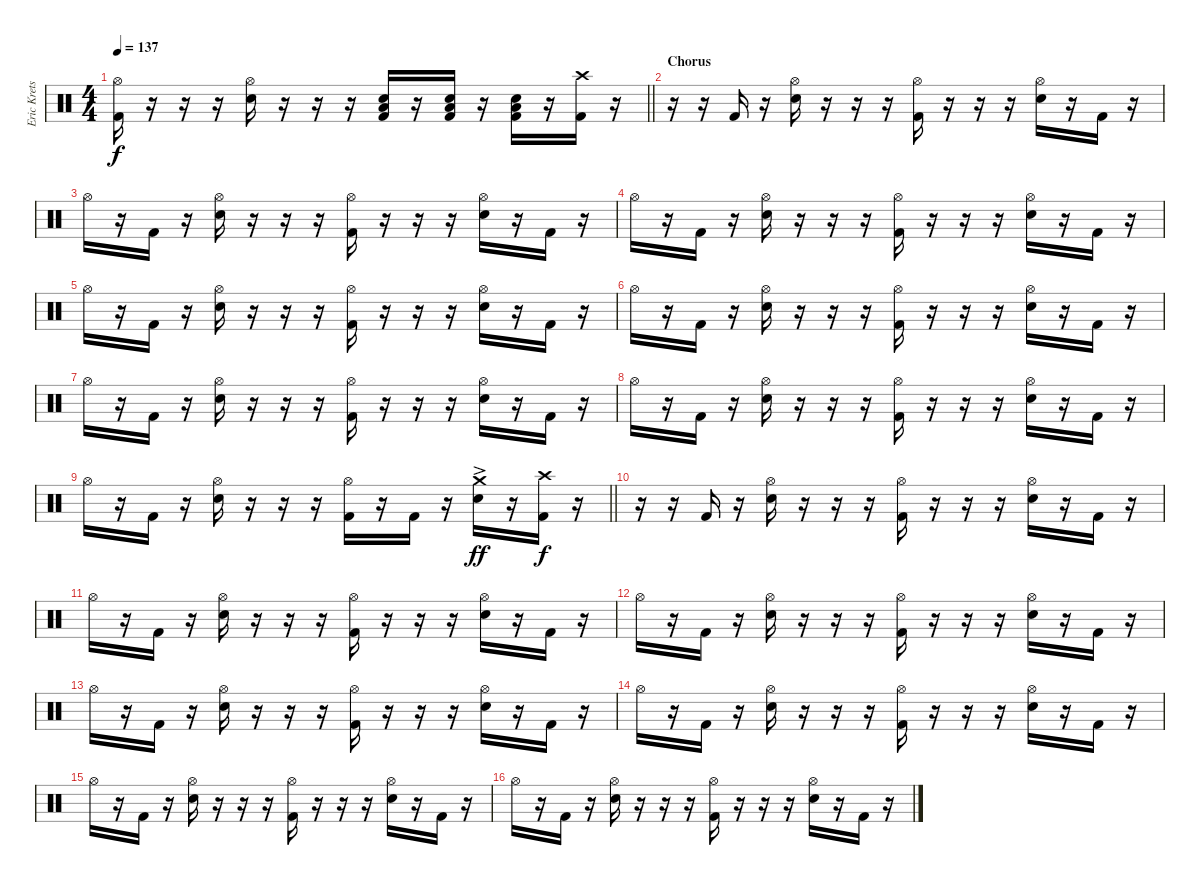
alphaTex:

\track ("Eric Krets" "Eric Krets") {instrument percussion}
\staff {score}
\articulation defaults
\ts (4 4)
\tempo 137
\clef neutral
\barLineRight lightlight
\ks c
("Hi-Hat (open)" "Kick (hit) 2").16{dy f} r.16 r.16 r.16 ("Hi-Hat (open)" "Electric Snare (hit)").16 r.16 r.16 r.16 ("Low Tom (hit)" "Electric Snare (hit)" "Kick (hit) 2").16 r.16 ("Low Tom (hit)" "Electric Snare (hit)" "Kick (hit) 2").16 r.16 ("Low Tom (hit)" "Electric Snare (hit)" "Kick (hit) 2").16 r.16 ("Crash high (hit)" "Kick (hit) 2").16 r.16 |
\section ("" "Chorus")
r.16 r.16 "Kick (hit) 2".16 r.16 ("Hi-Hat (open)" "Electric Snare (hit)").16 r.16 r.16 r.16 ("Hi-Hat (open)" "Kick (hit) 2").16 r.16 r.16 r.16 ("Hi-Hat (open)" "Electric Snare (hit)").16 r.16 "Kick (hit) 2".16 r.16 |
"Hi-Hat (open)".16 r.16 "Kick (hit) 2".16 r.16 ("Hi-Hat (open)" "Electric Snare (hit)").16 r.16 r.16 r.16 ("Hi-Hat (open)" "Kick (hit) 2").16 r.16 r.16 r.16 ("Hi-Hat (open)" "Electric Snare (hit)").16 r.16 "Kick (hit) 2".16 r.16 |
"Hi-Hat (open)".16 r.16 "Kick (hit) 2".16 r.16 ("Hi-Hat (open)" "Electric Snare (hit)").16 r.16 r.16 r.16 ("Hi-Hat (open)" "Kick (hit) 2").16 r.16 r.16 r.16 ("Hi-Hat (open)" "Electric Snare (hit)").16 r.16 "Kick (hit) 2".16 r.16 |
"Hi-Hat (open)".16 r.16 "Kick (hit) 2".16 r.16 ("Hi-Hat (open)" "Electric Snare (hit)").16 r.16 r.16 r.16 ("Hi-Hat (open)" "Kick (hit) 2").16 r.16 r.16 r.16 ("Hi-Hat (open)" "Electric Snare (hit)").16 r.16 "Kick (hit) 2".16 r.16 |
"Hi-Hat (open)".16 r.16 "Kick (hit) 2".16 r.16 ("Hi-Hat (open)" "Electric Snare (hit)").16 r.16 r.16 r.16 ("Hi-Hat (open)" "Kick (hit) 2").16 r.16 r.16 r.16 ("Hi-Hat (open)" "Electric Snare (hit)").16 r.16 "Kick (hit) 2".16 r.16 |
"Hi-Hat (open)".16 r.16 "Kick (hit) 2".16 r.16 ("Hi-Hat (open)" "Electric Snare (hit)").16 r.16 r.16 r.16 ("Hi-Hat (open)" "Kick (hit) 2").16 r.16 r.16 r.16 ("Hi-Hat (open)" "Electric Snare (hit)").16 r.16 "Kick (hit) 2".16 r.16 |
"Hi-Hat (open)".16 r.16 "Kick (hit) 2".16 r.16 ("Hi-Hat (open)" "Electric Snare (hit)").16 r.16 r.16 r.16 ("Hi-Hat (open)" "Kick (hit) 2").16 r.16 r.16 r.16 ("Hi-Hat (open)" "Electric Snare (hit)").16 r.16 "Kick (hit) 2".16 r.16 |
\barLineRight lightlight "Hi-Hat (open)".16
r.16 "Kick (hit) 2".16 r.16 ("Hi-Hat (open)" "Electric Snare (hit)").16 r.16 r.16 r.16 ("Hi-Hat (open)" "Kick (hit) 2").16 r.16 "Kick (hit) 2".16 r.16 ("Crash medium (hit)" "Electric Snare (hit)"{ac}).16{dy ff} r.16 ("Crash high (hit)" "Kick (hit) 2").16{dy f} r.16 |
r.16 r.16 "Kick (hit) 2".16 r.16 ("Hi-Hat (open)" "Electric Snare (hit)").16 r.16 r.16 r.16 ("Hi-Hat (open)" "Kick (hit) 2").16 r.16 r.16 r.16 ("Hi-Hat (open)" "Electric Snare (hit)").16 r.16 "Kick (hit) 2".16 r.16 |
"Hi-Hat (open)".16 r.16 "Kick (hit) 2".16 r.16 ("Hi-Hat (open)" "Electric Snare (hit)").16 r.16 r.16 r.16 ("Hi-Hat (open)" "Kick (hit) 2").16 r.16 r.16 r.16 ("Hi-Hat (open)" "Electric Snare (hit)").16 r.16 "Kick (hit) 2".16 r.16 |
"Hi-Hat (open)".16 r.16 "Kick (hit) 2".16 r.16 ("Hi-Hat (open)" "Electric Snare (hit)").16 r.16 r.16 r.16 ("Hi-Hat (open)" "Kick (hit) 2").16 r.16 r.16 r.16 ("Hi-Hat (open)" "Electric Snare (hit)").16 r.16 "Kick (hit) 2".16 r.16 |
"Hi-Hat (open)".16 r.16 "Kick (hit) 2".16 r.16 ("Hi-Hat (open)" "Electric Snare (hit)").16 r.16 r.16 r.16 ("Hi-Hat (open)" "Kick (hit) 2").16 r.16 r.16 r.16 ("Hi-Hat (open)" "Electric Snare (hit)").16 r.16 "Kick (hit) 2".16 r.16 |
"Hi-Hat (open)".16 r.16 "Kick (hit) 2".16 r.16 ("Hi-Hat (open)" "Electric Snare (hit)").16 r.16 r.16 r.16 ("Hi-Hat (open)" "Kick (hit) 2").16 r.16 r.16 r.16 ("Hi-Hat (open)" "Electric Snare (hit)").16 r.16 "Kick (hit) 2".16 r.16 |
"Hi-Hat (open)".16 r.16 "Kick (hit) 2".16 r.16 ("Hi-Hat (open)" "Electric Snare (hit)").16 r.16 r.16 r.16 ("Hi-Hat (open)" "Kick (hit) 2").16 r.16 r.16 r.16 ("Hi-Hat (open)" "Electric Snare (hit)").16 r.16 "Kick (hit) 2".16 r.16 |
"Hi-Hat (open)".16 r.16 "Kick (hit) 2".16 r.16 ("Hi-Hat (open)" "Electric Snare (hit)").16 r.16 r.16 r.16 ("Hi-Hat (open)" "Kick (hit) 2").16 r.16 r.16 r.16 ("Hi-Hat (open)" "Electric Snare (hit)").16 r.16 "Kick (hit) 2".16 r.16
